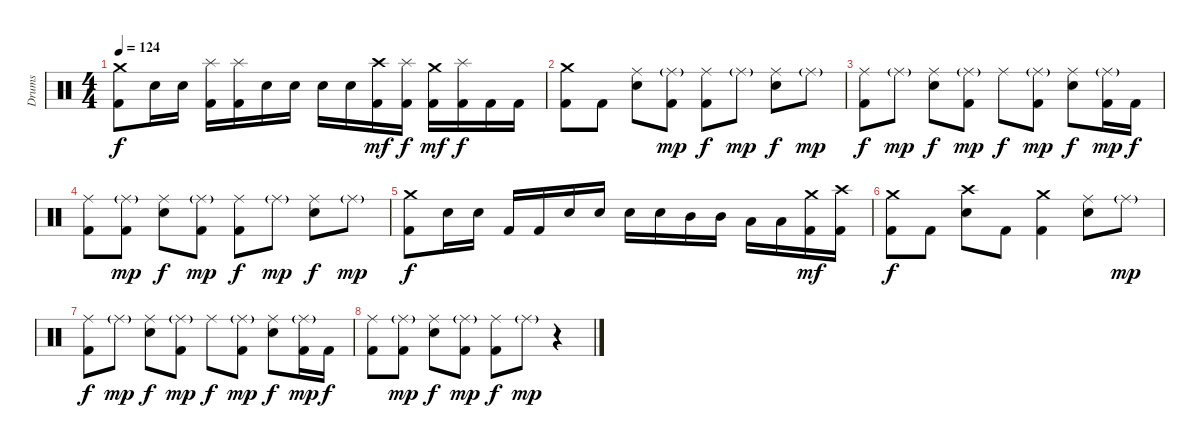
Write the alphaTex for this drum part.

\track ("Drums" "Drums") {instrument percussion}
\staff {score}
\articulation defaults
\ts (4 4)
\tempo 124
\clef neutral
\ks c
("Crash medium (hit)" "Kick (hit) 2").8{dy f} "Snare (hit) 2".16 "Snare (hit) 2".16 ("Splash (hit)" "Kick (hit) 2").16 ("Splash (hit)" "Kick (hit) 2").16 "Snare (hit) 2".16 "Snare (hit) 2".16 "Snare (hit) 2".16 "Snare (hit) 2".16 ("Crash high (hit)" "Kick (hit) 2").16{dy mf} ("Splash (hit)" "Kick (hit) 2").16{dy f} ("Crash medium (hit)" "Kick (hit) 2").16{dy mf} ("Splash (hit)" "Kick (hit) 2").16{dy f} "Kick (hit) 2".16 "Kick (hit) 2".16 |
("Crash medium (hit)" "Kick (hit) 2").8{volume 12} "Kick (hit) 2".8 ("Ride (middle)" "Snare (hit) 2").8 ("Ride (middle)"{g} "Kick (hit) 2").8{dy mp} ("Ride (middle)" "Kick (hit) 2").8{dy f} "Ride (middle)"{g}.8{dy mp} ("Ride (middle)" "Snare (hit) 2").8{dy f} "Ride (middle)"{g}.8{dy mp} |
("Ride (middle)" "Kick (hit) 2").8{dy f volume 10} "Ride (middle)"{g}.8{dy mp} ("Ride (middle)" "Snare (hit) 2").8{dy f} ("Ride (middle)"{g} "Kick (hit) 2").8{dy mp} "Ride (middle)".8{dy f} ("Ride (middle)"{g} "Kick (hit) 2").8{dy mp} ("Ride (middle)" "Snare (hit) 2").8{dy f} ("Ride (middle)"{g} "Kick (hit) 2").16{dy mp} "Kick (hit) 2".16{dy f} |
("Ride (middle)" "Kick (hit) 2").8{volume 8} ("Ride (middle)"{g} "Kick (hit) 2").8{dy mp} ("Ride (middle)" "Snare (hit) 2").8{dy f} ("Ride (middle)"{g} "Kick (hit) 2").8{dy mp} ("Ride (middle)" "Kick (hit) 2").8{dy f} "Ride (middle)"{g}.8{dy mp} ("Ride (middle)" "Snare (hit) 2").8{dy f} "Ride (middle)"{g}.8{dy mp} |
("Crash medium (hit)" "Kick (hit) 2").8{dy f volume 6} "Snare (hit) 2".16 "Snare (hit) 2".16 "Kick (hit) 2".16 "Kick (hit) 2".16 "Snare (hit) 2".16 "Snare (hit) 2".16 "Snare (hit) 2".16 "Snare (hit) 2".16 "Mid Tom (hit)".16 "Mid Tom (hit)".16 "Low Tom (hit)".16 "Low Tom (hit)".16 ("Crash medium (hit)" "Kick (hit) 2").16{dy mf} ("Crash high (hit)" "Kick (hit) 2").16 |
("Crash medium (hit)" "Kick (hit) 2").8{dy f volume 4} "Kick (hit) 2".8 ("Crash high (hit)" "Snare (hit) 2").8 "Kick (hit) 2".8 ("Crash medium (hit)" "Kick (hit) 2").4 ("Ride (middle)" "Snare (hit) 2").8 "Ride (middle)"{g}.8{dy mp} |
("Ride (middle)" "Kick (hit) 2").8{dy f volume 2} "Ride (middle)"{g}.8{dy mp} ("Ride (middle)" "Snare (hit) 2").8{dy f} ("Ride (middle)"{g} "Kick (hit) 2").8{dy mp} "Ride (middle)".8{dy f} ("Ride (middle)"{g} "Kick (hit) 2").8{dy mp} ("Ride (middle)" "Snare (hit) 2").8{dy f} ("Ride (middle)"{g} "Kick (hit) 2").16{dy mp} "Kick (hit) 2".16{dy f} |
("Ride (middle)" "Kick (hit) 2").8{volume 0} ("Ride (middle)"{g} "Kick (hit) 2").8{dy mp} ("Ride (middle)" "Snare (hit) 2").8{dy f} ("Ride (middle)"{g} "Kick (hit) 2").8{dy mp} ("Ride (middle)" "Kick (hit) 2").8{dy f} "Ride (middle)"{g}.8{dy mp} r.4
